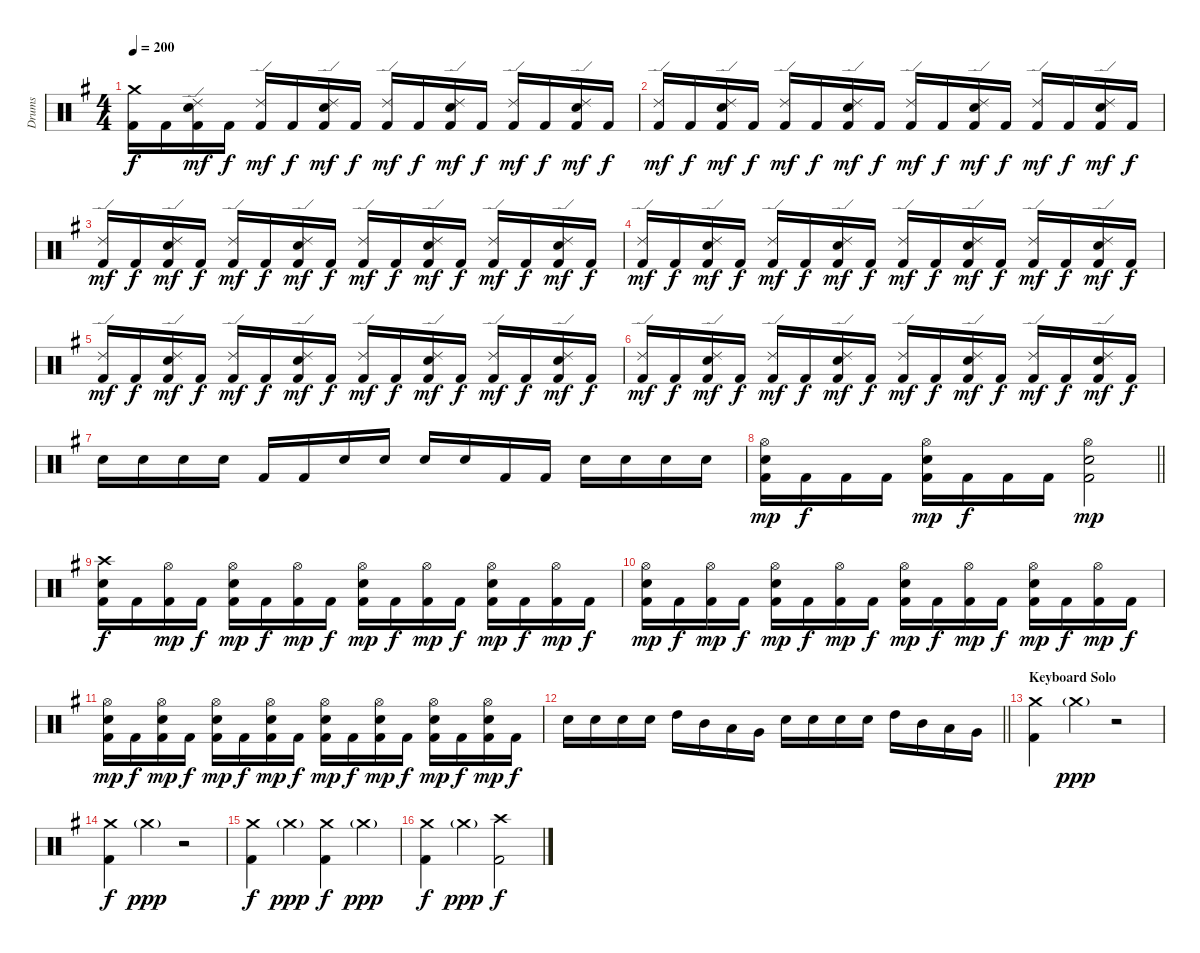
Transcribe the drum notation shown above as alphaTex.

\track ("Drums" "Drums") {instrument percussion}
\staff {score}
\articulation defaults
\ts (4 4)
\section ("" "")
\tempo 200
\clef neutral
\ks g
("Crash medium (hit)" "Kick (hit) 2").16{dy f} "Kick (hit) 2".16 ("Ride (edge) 2" "Snare (hit) 2" "Kick (hit) 2").16{dy mf} "Kick (hit) 2".16{dy f} ("Ride (edge) 2" "Kick (hit) 2").16{dy mf} "Kick (hit) 2".16{dy f} ("Ride (edge) 2" "Snare (hit) 2" "Kick (hit) 2").16{dy mf} "Kick (hit) 2".16{dy f} ("Ride (edge) 2" "Kick (hit) 2").16{dy mf} "Kick (hit) 2".16{dy f} ("Ride (edge) 2" "Snare (hit) 2" "Kick (hit) 2").16{dy mf} "Kick (hit) 2".16{dy f} ("Ride (edge) 2" "Kick (hit) 2").16{dy mf} "Kick (hit) 2".16{dy f} ("Ride (edge) 2" "Snare (hit) 2" "Kick (hit) 2").16{dy mf} "Kick (hit) 2".16{dy f} |
("Ride (edge) 2" "Kick (hit) 2").16{dy mf} "Kick (hit) 2".16{dy f} ("Ride (edge) 2" "Snare (hit) 2" "Kick (hit) 2").16{dy mf} "Kick (hit) 2".16{dy f} ("Ride (edge) 2" "Kick (hit) 2").16{dy mf} "Kick (hit) 2".16{dy f} ("Ride (edge) 2" "Snare (hit) 2" "Kick (hit) 2").16{dy mf} "Kick (hit) 2".16{dy f} ("Ride (edge) 2" "Kick (hit) 2").16{dy mf} "Kick (hit) 2".16{dy f} ("Ride (edge) 2" "Snare (hit) 2" "Kick (hit) 2").16{dy mf} "Kick (hit) 2".16{dy f} ("Ride (edge) 2" "Kick (hit) 2").16{dy mf} "Kick (hit) 2".16{dy f} ("Ride (edge) 2" "Snare (hit) 2" "Kick (hit) 2").16{dy mf} "Kick (hit) 2".16{dy f} |
("Ride (edge) 2" "Kick (hit) 2").16{dy mf} "Kick (hit) 2".16{dy f} ("Ride (edge) 2" "Snare (hit) 2" "Kick (hit) 2").16{dy mf} "Kick (hit) 2".16{dy f} ("Ride (edge) 2" "Kick (hit) 2").16{dy mf} "Kick (hit) 2".16{dy f} ("Ride (edge) 2" "Snare (hit) 2" "Kick (hit) 2").16{dy mf} "Kick (hit) 2".16{dy f} ("Ride (edge) 2" "Kick (hit) 2").16{dy mf} "Kick (hit) 2".16{dy f} ("Ride (edge) 2" "Snare (hit) 2" "Kick (hit) 2").16{dy mf} "Kick (hit) 2".16{dy f} ("Ride (edge) 2" "Kick (hit) 2").16{dy mf} "Kick (hit) 2".16{dy f} ("Ride (edge) 2" "Snare (hit) 2" "Kick (hit) 2").16{dy mf} "Kick (hit) 2".16{dy f} |
("Ride (edge) 2" "Kick (hit) 2").16{dy mf} "Kick (hit) 2".16{dy f} ("Ride (edge) 2" "Snare (hit) 2" "Kick (hit) 2").16{dy mf} "Kick (hit) 2".16{dy f} ("Ride (edge) 2" "Kick (hit) 2").16{dy mf} "Kick (hit) 2".16{dy f} ("Ride (edge) 2" "Snare (hit) 2" "Kick (hit) 2").16{dy mf} "Kick (hit) 2".16{dy f} ("Ride (edge) 2" "Kick (hit) 2").16{dy mf} "Kick (hit) 2".16{dy f} ("Ride (edge) 2" "Snare (hit) 2" "Kick (hit) 2").16{dy mf} "Kick (hit) 2".16{dy f} ("Ride (edge) 2" "Kick (hit) 2").16{dy mf} "Kick (hit) 2".16{dy f} ("Ride (edge) 2" "Snare (hit) 2" "Kick (hit) 2").16{dy mf} "Kick (hit) 2".16{dy f} |
("Ride (edge) 2" "Kick (hit) 2").16{dy mf} "Kick (hit) 2".16{dy f} ("Ride (edge) 2" "Snare (hit) 2" "Kick (hit) 2").16{dy mf} "Kick (hit) 2".16{dy f} ("Ride (edge) 2" "Kick (hit) 2").16{dy mf} "Kick (hit) 2".16{dy f} ("Ride (edge) 2" "Snare (hit) 2" "Kick (hit) 2").16{dy mf} "Kick (hit) 2".16{dy f} ("Ride (edge) 2" "Kick (hit) 2").16{dy mf} "Kick (hit) 2".16{dy f} ("Ride (edge) 2" "Snare (hit) 2" "Kick (hit) 2").16{dy mf} "Kick (hit) 2".16{dy f} ("Ride (edge) 2" "Kick (hit) 2").16{dy mf} "Kick (hit) 2".16{dy f} ("Ride (edge) 2" "Snare (hit) 2" "Kick (hit) 2").16{dy mf} "Kick (hit) 2".16{dy f} |
("Ride (edge) 2" "Kick (hit) 2").16{dy mf} "Kick (hit) 2".16{dy f} ("Ride (edge) 2" "Snare (hit) 2" "Kick (hit) 2").16{dy mf} "Kick (hit) 2".16{dy f} ("Ride (edge) 2" "Kick (hit) 2").16{dy mf} "Kick (hit) 2".16{dy f} ("Ride (edge) 2" "Snare (hit) 2" "Kick (hit) 2").16{dy mf} "Kick (hit) 2".16{dy f} ("Ride (edge) 2" "Kick (hit) 2").16{dy mf} "Kick (hit) 2".16{dy f} ("Ride (edge) 2" "Snare (hit) 2" "Kick (hit) 2").16{dy mf} "Kick (hit) 2".16{dy f} ("Ride (edge) 2" "Kick (hit) 2").16{dy mf} "Kick (hit) 2".16{dy f} ("Ride (edge) 2" "Snare (hit) 2" "Kick (hit) 2").16{dy mf} "Kick (hit) 2".16{dy f} |
"Snare (hit) 2".16 "Snare (hit) 2".16 "Snare (hit) 2".16 "Snare (hit) 2".16 "Kick (hit) 2".16 "Kick (hit) 2".16 "Snare (hit) 2".16 "Snare (hit) 2".16 "Snare (hit) 2".16 "Snare (hit) 2".16 "Kick (hit) 2".16 "Kick (hit) 2".16 "Snare (hit) 2".16 "Snare (hit) 2".16 "Snare (hit) 2".16 "Snare (hit) 2".16 |
\barLineRight lightlight
("Hi-Hat (open)" "Snare (hit) 2" "Kick (hit) 2").16{dy mp} "Kick (hit) 2".16{dy f} "Kick (hit) 2".16 "Kick (hit) 2".16 ("Hi-Hat (open)" "Snare (hit) 2" "Kick (hit) 2").16{dy mp} "Kick (hit) 2".16{dy f} "Kick (hit) 2".16 "Kick (hit) 2".16 ("Hi-Hat (open)" "Snare (hit) 2" "Kick (hit) 2").2{dy mp} |
\section ("" "")
("Crash high (hit)" "Snare (hit) 2" "Kick (hit) 2").16{dy f} "Kick (hit) 2".16 ("Hi-Hat (open)" "Kick (hit) 2").16{dy mp} "Kick (hit) 2".16{dy f} ("Hi-Hat (open)" "Snare (hit) 2" "Kick (hit) 2").16{dy mp} "Kick (hit) 2".16{dy f} ("Hi-Hat (open)" "Kick (hit) 2").16{dy mp} "Kick (hit) 2".16{dy f} ("Hi-Hat (open)" "Snare (hit) 2" "Kick (hit) 2").16{dy mp} "Kick (hit) 2".16{dy f} ("Hi-Hat (open)" "Kick (hit) 2").16{dy mp} "Kick (hit) 2".16{dy f} ("Hi-Hat (open)" "Snare (hit) 2" "Kick (hit) 2").16{dy mp} "Kick (hit) 2".16{dy f} ("Hi-Hat (open)" "Kick (hit) 2").16{dy mp} "Kick (hit) 2".16{dy f} |
("Hi-Hat (open)" "Snare (hit) 2" "Kick (hit) 2").16{dy mp} "Kick (hit) 2".16{dy f} ("Hi-Hat (open)" "Kick (hit) 2").16{dy mp} "Kick (hit) 2".16{dy f} ("Hi-Hat (open)" "Snare (hit) 2" "Kick (hit) 2").16{dy mp} "Kick (hit) 2".16{dy f} ("Hi-Hat (open)" "Kick (hit) 2").16{dy mp} "Kick (hit) 2".16{dy f} ("Hi-Hat (open)" "Snare (hit) 2" "Kick (hit) 2").16{dy mp} "Kick (hit) 2".16{dy f} ("Hi-Hat (open)" "Kick (hit) 2").16{dy mp} "Kick (hit) 2".16{dy f} ("Hi-Hat (open)" "Snare (hit) 2" "Kick (hit) 2").16{dy mp} "Kick (hit) 2".16{dy f} ("Hi-Hat (open)" "Kick (hit) 2").16{dy mp} "Kick (hit) 2".16{dy f} |
("Hi-Hat (open)" "Snare (hit) 2" "Kick (hit) 2").16{dy mp} "Kick (hit) 2".16{dy f} ("Hi-Hat (open)" "Snare (hit) 2" "Kick (hit) 2").16{dy mp} "Kick (hit) 2".16{dy f} ("Hi-Hat (open)" "Snare (hit) 2" "Kick (hit) 2").16{dy mp} "Kick (hit) 2".16{dy f} ("Hi-Hat (open)" "Snare (hit) 2" "Kick (hit) 2").16{dy mp} "Kick (hit) 2".16{dy f} ("Hi-Hat (open)" "Snare (hit) 2" "Kick (hit) 2").16{dy mp} "Kick (hit) 2".16{dy f} ("Hi-Hat (open)" "Snare (hit) 2" "Kick (hit) 2").16{dy mp} "Kick (hit) 2".16{dy f} ("Hi-Hat (open)" "Snare (hit) 2" "Kick (hit) 2").16{dy mp} "Kick (hit) 2".16{dy f} ("Hi-Hat (open)" "Snare (hit) 2" "Kick (hit) 2").16{dy mp} "Kick (hit) 2".16{dy f} |
\barLineRight lightlight "Snare (hit) 2".16 "Snare (hit) 2".16 "Snare (hit) 2".16 "Snare (hit) 2".16 "High Tom (hit)".16 "Mid Tom (hit)".16 "Low Tom (hit)".16 "Very Low Tom (hit)".16 "Snare (hit) 2".16 "Snare (hit) 2".16 "Snare (hit) 2".16 "Snare (hit) 2".16 "High Tom (hit)".16 "Mid Tom (hit)".16 "Low Tom (hit)".16 "Very Low Tom (hit)".16
|
\section ("" "Keyboard Solo")
("Crash medium (hit)" "Kick (hit) 2").4 "Crash medium (hit)"{g}.4{dy ppp} r.2 |
("Crash medium (hit)" "Kick (hit) 2").4{dy f} "Crash medium (hit)"{g}.4{dy ppp} r.2 |
("Crash medium (hit)" "Kick (hit) 2").4{dy f} "Crash medium (hit)"{g}.4{dy ppp} ("Crash medium (hit)" "Kick (hit) 2").4{dy f} "Crash medium (hit)"{g}.4{dy ppp} |
("Crash medium (hit)" "Kick (hit) 2").4{dy f} "Crash medium (hit)"{g}.4{dy ppp} ("Crash high (hit)" "Kick (hit) 2").2{dy f}
